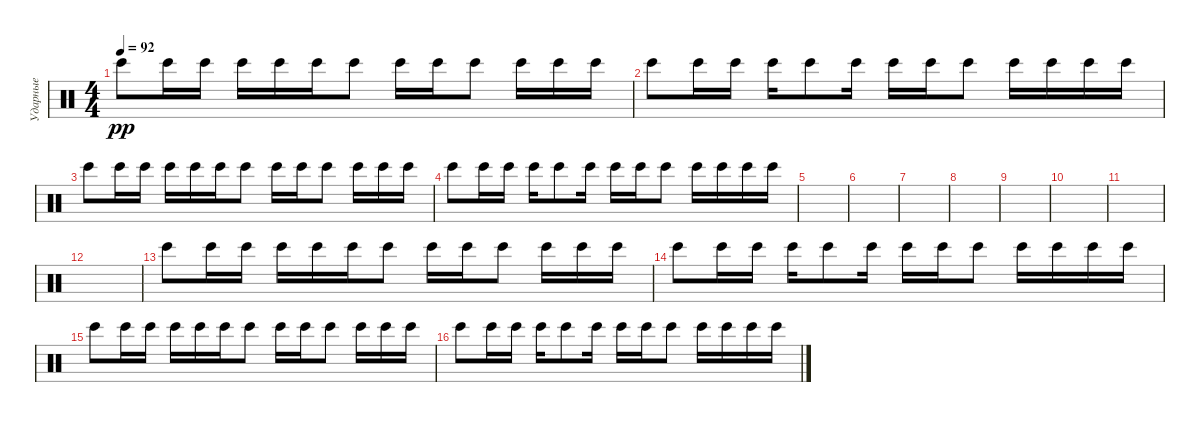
\track ("Ударные" "Ударные") {instrument percussion}
\staff {score}
\articulation defaults
\ts (4 4)
\tempo 92
\clef neutral
\ks c "Bongo High (hit)".8{dy pp} "Bongo High (hit)".16 "Bongo High (hit)".16 "Bongo High (hit)".16 "Bongo High (hit)".16 "Bongo High (hit)".16 "Bongo High (hit)".8 "Bongo High (hit)".16 "Bongo High (hit)".16 "Bongo High (hit)".8 "Bongo High (hit)".16 "Bongo High (hit)".16 "Bongo High (hit)".16
|
"Bongo High (hit)".8 "Bongo High (hit)".16 "Bongo High (hit)".16 "Bongo High (hit)".16 "Bongo High (hit)".8 "Bongo High (hit)".16 "Bongo High (hit)".16 "Bongo High (hit)".16 "Bongo High (hit)".8 "Bongo High (hit)".16 "Bongo High (hit)".16 "Bongo High (hit)".16 "Bongo High (hit)".16 |
"Bongo High (hit)".8 "Bongo High (hit)".16 "Bongo High (hit)".16 "Bongo High (hit)".16 "Bongo High (hit)".16 "Bongo High (hit)".16 "Bongo High (hit)".8 "Bongo High (hit)".16 "Bongo High (hit)".16 "Bongo High (hit)".8 "Bongo High (hit)".16 "Bongo High (hit)".16 "Bongo High (hit)".16 |
"Bongo High (hit)".8 "Bongo High (hit)".16 "Bongo High (hit)".16 "Bongo High (hit)".16 "Bongo High (hit)".8 "Bongo High (hit)".16 "Bongo High (hit)".16 "Bongo High (hit)".16 "Bongo High (hit)".8 "Bongo High (hit)".16 "Bongo High (hit)".16 "Bongo High (hit)".16 "Bongo High (hit)".16 |
|
|
|
|
|
|
|
|
"Bongo High (hit)".8 "Bongo High (hit)".16 "Bongo High (hit)".16 "Bongo High (hit)".16 "Bongo High (hit)".16 "Bongo High (hit)".16 "Bongo High (hit)".8 "Bongo High (hit)".16 "Bongo High (hit)".16 "Bongo High (hit)".8 "Bongo High (hit)".16 "Bongo High (hit)".16 "Bongo High (hit)".16 |
"Bongo High (hit)".8 "Bongo High (hit)".16 "Bongo High (hit)".16 "Bongo High (hit)".16 "Bongo High (hit)".8 "Bongo High (hit)".16 "Bongo High (hit)".16 "Bongo High (hit)".16 "Bongo High (hit)".8 "Bongo High (hit)".16 "Bongo High (hit)".16 "Bongo High (hit)".16 "Bongo High (hit)".16 |
"Bongo High (hit)".8 "Bongo High (hit)".16 "Bongo High (hit)".16 "Bongo High (hit)".16 "Bongo High (hit)".16 "Bongo High (hit)".16 "Bongo High (hit)".8 "Bongo High (hit)".16 "Bongo High (hit)".16 "Bongo High (hit)".8 "Bongo High (hit)".16 "Bongo High (hit)".16 "Bongo High (hit)".16 |
"Bongo High (hit)".8 "Bongo High (hit)".16 "Bongo High (hit)".16 "Bongo High (hit)".16 "Bongo High (hit)".8 "Bongo High (hit)".16 "Bongo High (hit)".16 "Bongo High (hit)".16 "Bongo High (hit)".8 "Bongo High (hit)".16 "Bongo High (hit)".16 "Bongo High (hit)".16 "Bongo High (hit)".16
